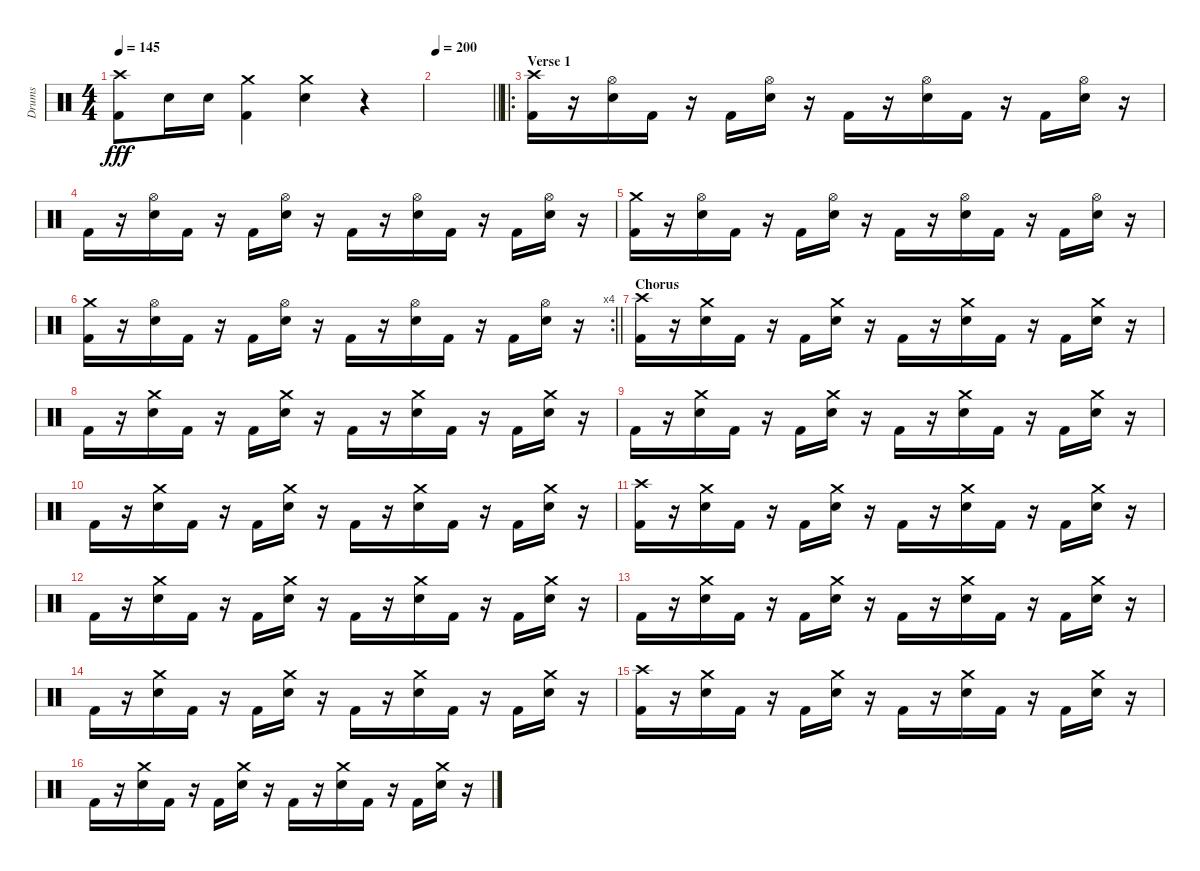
\track ("Drums" "Drums") {instrument percussion}
\staff {score}
\articulation defaults
\ts (4 4)
\tempo 145
\clef neutral
\ks c
("Crash high (hit)" "Kick (hit) 2").8{dy fff} "Electric Snare (hit)".16 "Electric Snare (hit)".16 ("Crash medium (hit)" "Kick (hit) 2").4 ("Crash medium (hit)" "Electric Snare (hit)").4 r.4 |
\tempo 200
\barLineRight lightlight
|
\ro
\section ("" "Verse 1")
("Crash high (hit)" "Kick (hit) 2").16 r.16 ("Hi-Hat (open)" "Electric Snare (hit)").16 "Kick (hit) 2".16 r.16 "Kick (hit) 2".16 ("Hi-Hat (open)" "Electric Snare (hit)").16 r.16 "Kick (hit) 2".16 r.16 ("Hi-Hat (open)" "Electric Snare (hit)").16 "Kick (hit) 2".16 r.16 "Kick (hit) 2".16 ("Hi-Hat (open)" "Electric Snare (hit)").16 r.16 |
"Kick (hit) 2".16 r.16 ("Hi-Hat (open)" "Electric Snare (hit)").16 "Kick (hit) 2".16 r.16 "Kick (hit) 2".16 ("Hi-Hat (open)" "Electric Snare (hit)").16 r.16 "Kick (hit) 2".16 r.16 ("Hi-Hat (open)" "Electric Snare (hit)").16 "Kick (hit) 2".16 r.16 "Kick (hit) 2".16 ("Hi-Hat (open)" "Electric Snare (hit)").16 r.16 |
("Crash medium (hit)" "Kick (hit) 2").16 r.16 ("Hi-Hat (open)" "Electric Snare (hit)").16 "Kick (hit) 2".16 r.16 "Kick (hit) 2".16 ("Hi-Hat (open)" "Electric Snare (hit)").16 r.16 "Kick (hit) 2".16 r.16 ("Hi-Hat (open)" "Electric Snare (hit)").16 "Kick (hit) 2".16 r.16 "Kick (hit) 2".16 ("Hi-Hat (open)" "Electric Snare (hit)").16 r.16 |
\rc 4
\barLineRight lightlight
("Crash medium (hit)" "Kick (hit) 2").16 r.16 ("Hi-Hat (open)" "Electric Snare (hit)").16 "Kick (hit) 2".16 r.16 "Kick (hit) 2".16 ("Hi-Hat (open)" "Electric Snare (hit)").16 r.16 "Kick (hit) 2".16 r.16 ("Hi-Hat (open)" "Electric Snare (hit)").16 "Kick (hit) 2".16 r.16 "Kick (hit) 2".16 ("Hi-Hat (open)" "Electric Snare (hit)").16 r.16 |
\section ("" "Chorus")
("Crash high (hit)" "Kick (hit) 2").16 r.16 ("Crash medium (hit)" "Electric Snare (hit)").16 "Kick (hit) 2".16 r.16 "Kick (hit) 2".16 ("Crash medium (hit)" "Electric Snare (hit)").16 r.16 "Kick (hit) 2".16 r.16 ("Crash medium (hit)" "Electric Snare (hit)").16 "Kick (hit) 2".16 r.16 "Kick (hit) 2".16 ("Crash medium (hit)" "Electric Snare (hit)").16 r.16 |
"Kick (hit) 2".16 r.16 ("Crash medium (hit)" "Electric Snare (hit)").16 "Kick (hit) 2".16 r.16 "Kick (hit) 2".16 ("Crash medium (hit)" "Electric Snare (hit)").16 r.16 "Kick (hit) 2".16 r.16 ("Crash medium (hit)" "Electric Snare (hit)").16 "Kick (hit) 2".16 r.16 "Kick (hit) 2".16 ("Crash medium (hit)" "Electric Snare (hit)").16 r.16 |
"Kick (hit) 2".16 r.16 ("Crash medium (hit)" "Electric Snare (hit)").16 "Kick (hit) 2".16 r.16 "Kick (hit) 2".16 ("Crash medium (hit)" "Electric Snare (hit)").16 r.16 "Kick (hit) 2".16 r.16 ("Crash medium (hit)" "Electric Snare (hit)").16 "Kick (hit) 2".16 r.16 "Kick (hit) 2".16 ("Crash medium (hit)" "Electric Snare (hit)").16 r.16 |
"Kick (hit) 2".16 r.16 ("Crash medium (hit)" "Electric Snare (hit)").16 "Kick (hit) 2".16 r.16 "Kick (hit) 2".16 ("Crash medium (hit)" "Electric Snare (hit)").16 r.16 "Kick (hit) 2".16 r.16 ("Crash medium (hit)" "Electric Snare (hit)").16 "Kick (hit) 2".16 r.16 "Kick (hit) 2".16 ("Crash medium (hit)" "Electric Snare (hit)").16 r.16 |
("Crash high (hit)" "Kick (hit) 2").16 r.16 ("Crash medium (hit)" "Electric Snare (hit)").16 "Kick (hit) 2".16 r.16 "Kick (hit) 2".16 ("Crash medium (hit)" "Electric Snare (hit)").16 r.16 "Kick (hit) 2".16 r.16 ("Crash medium (hit)" "Electric Snare (hit)").16 "Kick (hit) 2".16 r.16 "Kick (hit) 2".16 ("Crash medium (hit)" "Electric Snare (hit)").16 r.16 |
"Kick (hit) 2".16 r.16 ("Crash medium (hit)" "Electric Snare (hit)").16 "Kick (hit) 2".16 r.16 "Kick (hit) 2".16 ("Crash medium (hit)" "Electric Snare (hit)").16 r.16 "Kick (hit) 2".16 r.16 ("Crash medium (hit)" "Electric Snare (hit)").16 "Kick (hit) 2".16 r.16 "Kick (hit) 2".16 ("Crash medium (hit)" "Electric Snare (hit)").16 r.16 |
"Kick (hit) 2".16 r.16 ("Crash medium (hit)" "Electric Snare (hit)").16 "Kick (hit) 2".16 r.16 "Kick (hit) 2".16 ("Crash medium (hit)" "Electric Snare (hit)").16 r.16 "Kick (hit) 2".16 r.16 ("Crash medium (hit)" "Electric Snare (hit)").16 "Kick (hit) 2".16 r.16 "Kick (hit) 2".16 ("Crash medium (hit)" "Electric Snare (hit)").16 r.16 |
"Kick (hit) 2".16 r.16 ("Crash medium (hit)" "Electric Snare (hit)").16 "Kick (hit) 2".16 r.16 "Kick (hit) 2".16 ("Crash medium (hit)" "Electric Snare (hit)").16 r.16 "Kick (hit) 2".16 r.16 ("Crash medium (hit)" "Electric Snare (hit)").16 "Kick (hit) 2".16 r.16 "Kick (hit) 2".16 ("Crash medium (hit)" "Electric Snare (hit)").16 r.16 |
("Crash high (hit)" "Kick (hit) 2").16 r.16 ("Crash medium (hit)" "Electric Snare (hit)").16 "Kick (hit) 2".16 r.16 "Kick (hit) 2".16 ("Crash medium (hit)" "Electric Snare (hit)").16 r.16 "Kick (hit) 2".16 r.16 ("Crash medium (hit)" "Electric Snare (hit)").16 "Kick (hit) 2".16 r.16 "Kick (hit) 2".16 ("Crash medium (hit)" "Electric Snare (hit)").16 r.16 |
"Kick (hit) 2".16 r.16 ("Crash medium (hit)" "Electric Snare (hit)").16 "Kick (hit) 2".16 r.16 "Kick (hit) 2".16 ("Crash medium (hit)" "Electric Snare (hit)").16 r.16 "Kick (hit) 2".16 r.16 ("Crash medium (hit)" "Electric Snare (hit)").16 "Kick (hit) 2".16 r.16 "Kick (hit) 2".16 ("Crash medium (hit)" "Electric Snare (hit)").16 r.16
